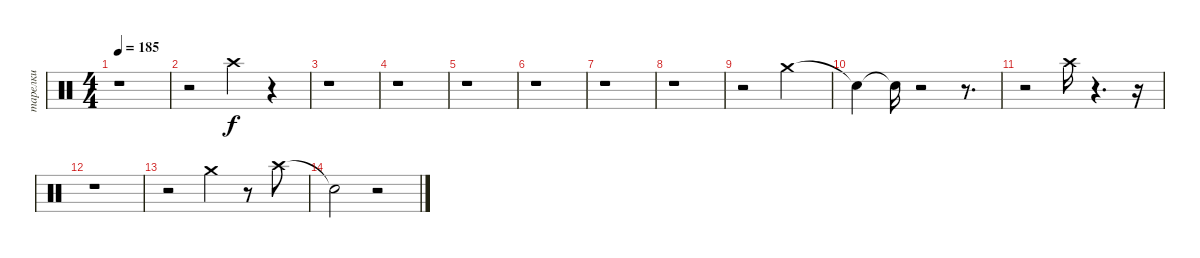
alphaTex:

\track ("тарелки" "тарелки") {instrument percussion}
\staff {score}
\articulation defaults
\ts (4 4)
\tempo 185
\clef neutral
\ks c
r.1{dy f} |
r.2 "Crash high (hit)".4 r.4 |
r.1 |
r.1 |
r.1 |
r.1 |
r.1 |
r.1 |
r.2 "Crash medium (hit)".2 |
"Snare (hit)"{t}.4 "Snare (hit)"{t}.16 r.2 r.8{d} |
r.2 "Crash high (hit)".16 r.4{d} r.16 |
r.1 |
r.2 "Crash medium (hit)".4 r.8 "Crash high (hit)".8 |
"Snare (hit)"{t}.2 r.2
